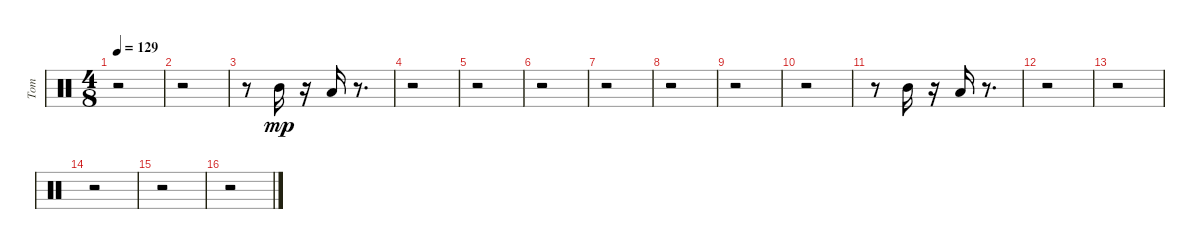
\track ("Tom" "Tom") {instrument percussion}
\staff {score}
\articulation defaults
\ts (4 8)
\tempo 129
\clef neutral
\ks c
r.2{dy f} |
r.2 |
r.8 "Mid Tom (hit)".16{dy mp} r.16 "Low Tom (hit)".16 r.8{d} |
r.2 |
r.2 |
r.2 |
r.2 |
r.2 |
r.2 |
r.2 |
r.8 "Mid Tom (hit)".16 r.16 "Low Tom (hit)".16 r.8{d} |
r.2 |
r.2 |
r.2 |
r.2 |
r.2
